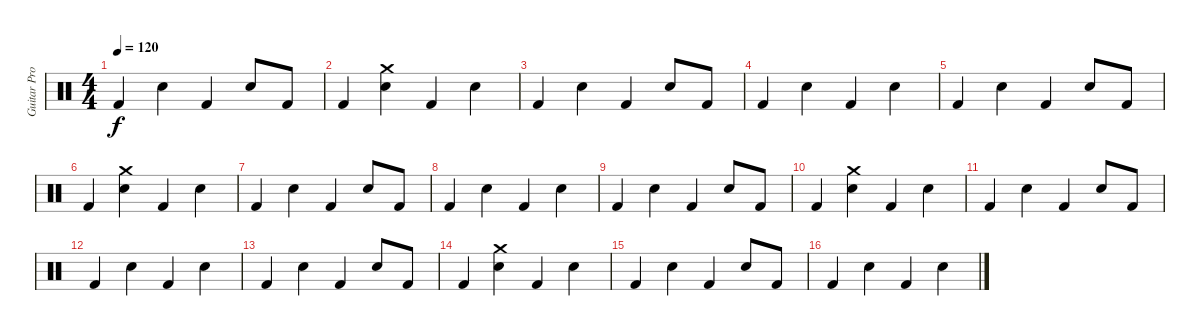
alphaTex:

\track ("Guitar Pro" "Guitar Pro") {instrument percussion}
\staff {score}
\articulation defaults
\ts (4 4)
\tempo 120
\clef neutral
\ks c "Kick (hit) 2".4{dy f} "Snare (hit) 2".4 "Kick (hit) 2".4 "Snare (hit) 2".8 "Kick (hit) 2".8
|
"Kick (hit) 2".4 ("Snare (hit) 2" "Crash medium (hit)").4 "Kick (hit) 2".4 "Snare (hit) 2".4 |
"Kick (hit) 2".4 "Snare (hit) 2".4 "Kick (hit) 2".4 "Snare (hit) 2".8 "Kick (hit) 2".8 |
"Kick (hit) 2".4 "Snare (hit) 2".4 "Kick (hit) 2".4 "Snare (hit) 2".4 |
"Kick (hit) 2".4 "Snare (hit) 2".4 "Kick (hit) 2".4 "Snare (hit) 2".8 "Kick (hit) 2".8 |
"Kick (hit) 2".4 ("Snare (hit) 2" "Crash medium (hit)").4 "Kick (hit) 2".4 "Snare (hit) 2".4 |
"Kick (hit) 2".4 "Snare (hit) 2".4 "Kick (hit) 2".4 "Snare (hit) 2".8 "Kick (hit) 2".8 |
"Kick (hit) 2".4 "Snare (hit) 2".4 "Kick (hit) 2".4 "Snare (hit) 2".4 |
"Kick (hit) 2".4 "Snare (hit) 2".4 "Kick (hit) 2".4 "Snare (hit) 2".8 "Kick (hit) 2".8 |
"Kick (hit) 2".4 ("Snare (hit) 2" "Crash medium (hit)").4 "Kick (hit) 2".4 "Snare (hit) 2".4 |
"Kick (hit) 2".4 "Snare (hit) 2".4 "Kick (hit) 2".4 "Snare (hit) 2".8 "Kick (hit) 2".8 |
"Kick (hit) 2".4 "Snare (hit) 2".4 "Kick (hit) 2".4 "Snare (hit) 2".4 |
"Kick (hit) 2".4 "Snare (hit) 2".4 "Kick (hit) 2".4 "Snare (hit) 2".8 "Kick (hit) 2".8 |
"Kick (hit) 2".4 ("Snare (hit) 2" "Crash medium (hit)").4 "Kick (hit) 2".4 "Snare (hit) 2".4 |
"Kick (hit) 2".4 "Snare (hit) 2".4 "Kick (hit) 2".4 "Snare (hit) 2".8 "Kick (hit) 2".8 |
"Kick (hit) 2".4 "Snare (hit) 2".4 "Kick (hit) 2".4 "Snare (hit) 2".4
